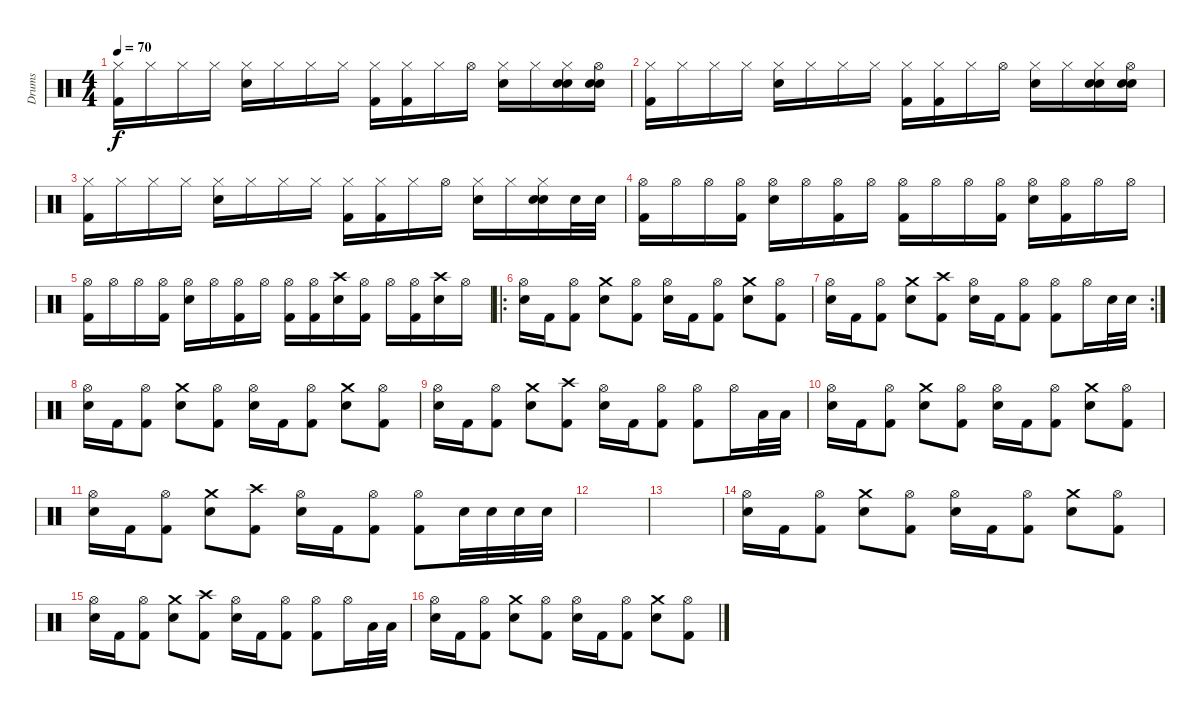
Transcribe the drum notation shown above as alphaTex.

\track ("Drums" "Drums") {instrument percussion}
\staff {score}
\articulation defaults
\ts (4 4)
\tempo 70
\clef neutral
\ks c
("Hi-Hat (closed)" "Kick (hit) 2").16{dy f} "Hi-Hat (closed)".16 "Hi-Hat (closed)".16 "Hi-Hat (closed)".16 ("Hi-Hat (closed)" "Electric Snare (hit)").16 "Hi-Hat (closed)".16 "Hi-Hat (closed)".16 "Hi-Hat (closed)".16 ("Hi-Hat (closed)" "Kick (hit) 2").16 ("Hi-Hat (closed)" "Kick (hit) 2").16 "Hi-Hat (closed)".16 "Hi-Hat (open)".16 ("Hi-Hat (closed)" "Electric Snare (hit)").16 "Hi-Hat (closed)".16 ("Hi-Hat (closed)" "Hand Clap (hit)" "Electric Snare (hit)").16 ("Hi-Hat (open)" "Hand Clap (hit)" "Electric Snare (hit)").16 |
("Hi-Hat (closed)" "Kick (hit) 2").16 "Hi-Hat (closed)".16 "Hi-Hat (closed)".16 "Hi-Hat (closed)".16 ("Hi-Hat (closed)" "Electric Snare (hit)").16 "Hi-Hat (closed)".16 "Hi-Hat (closed)".16 "Hi-Hat (closed)".16 ("Hi-Hat (closed)" "Kick (hit) 2").16 ("Hi-Hat (closed)" "Kick (hit) 2").16 "Hi-Hat (closed)".16 "Hi-Hat (open)".16 ("Hi-Hat (closed)" "Electric Snare (hit)").16 "Hi-Hat (closed)".16 ("Hi-Hat (closed)" "Hand Clap (hit)" "Electric Snare (hit)").16 ("Hi-Hat (open)" "Hand Clap (hit)" "Electric Snare (hit)").16 |
("Hi-Hat (closed)" "Kick (hit) 2").16 "Hi-Hat (closed)".16 "Hi-Hat (closed)".16 "Hi-Hat (closed)".16 ("Hi-Hat (closed)" "Electric Snare (hit)").16 "Hi-Hat (closed)".16 "Hi-Hat (closed)".16 "Hi-Hat (closed)".16 ("Hi-Hat (closed)" "Kick (hit) 2").16 ("Hi-Hat (closed)" "Kick (hit) 2").16 "Hi-Hat (closed)".16 "Hi-Hat (open)".16 ("Hi-Hat (closed)" "Electric Snare (hit)").16 "Hi-Hat (closed)".16 ("Hi-Hat (closed)" "Hand Clap (hit)" "Electric Snare (hit)").16 "Electric Snare (hit)".32 "Electric Snare (hit)".32 |
("Hi-Hat (open)" "Kick (hit) 2").16 "Hi-Hat (open)".16 "Hi-Hat (open)".16 ("Hi-Hat (open)" "Kick (hit) 2").16 ("Hi-Hat (open)" "Electric Snare (hit)").16 "Hi-Hat (open)".16 ("Hi-Hat (open)" "Kick (hit) 2").16 "Hi-Hat (open)".16 ("Hi-Hat (open)" "Kick (hit) 2").16 "Hi-Hat (open)".16 "Hi-Hat (open)".16 ("Hi-Hat (open)" "Kick (hit) 2").16 ("Hi-Hat (open)" "Electric Snare (hit)").16 ("Hi-Hat (open)" "Kick (hit) 2").16 "Hi-Hat (open)".16 "Hi-Hat (open)".16 |
("Hi-Hat (open)" "Kick (hit) 2").16 "Hi-Hat (open)".16 "Hi-Hat (open)".16 ("Hi-Hat (open)" "Kick (hit) 2").16 ("Hi-Hat (open)" "Electric Snare (hit)").16 "Hi-Hat (open)".16 ("Hi-Hat (open)" "Kick (hit) 2").16 "Hi-Hat (open)".16 ("Hi-Hat (open)" "Kick (hit) 2").16 ("Hi-Hat (open)" "Kick (hit) 2").16 ("Crash high (hit)" "Electric Snare (hit)").16 ("Hi-Hat (open)" "Kick (hit) 2").16 "Hi-Hat (open)".16 ("Hi-Hat (open)" "Kick (hit) 2").16 ("Crash high (hit)" "Electric Snare (hit)").16 "Hi-Hat (open)".16 |
\ro
("Hi-Hat (open)" "Electric Snare (hit)").16 "Kick (hit) 2".16 ("Hi-Hat (open)" "Kick (hit) 2").8 ("Crash medium (hit)" "Electric Snare (hit)").8 ("Hi-Hat (open)" "Kick (hit) 2").8 ("Hi-Hat (open)" "Electric Snare (hit)").16 "Kick (hit) 2".16 ("Hi-Hat (open)" "Kick (hit) 2").8 ("Crash medium (hit)" "Electric Snare (hit)").8 ("Hi-Hat (open)" "Kick (hit) 2").8 |
\rc 2
("Hi-Hat (open)" "Electric Snare (hit)").16 "Kick (hit) 2".16 ("Hi-Hat (open)" "Kick (hit) 2").8 ("Crash medium (hit)" "Electric Snare (hit)").8 ("Crash high (hit)" "Kick (hit) 2").8 ("Hi-Hat (open)" "Electric Snare (hit)").16 "Kick (hit) 2".16 ("Hi-Hat (open)" "Kick (hit) 2").8 ("Hi-Hat (open)" "Kick (hit) 2").8 "Hi-Hat (open)".16 "Electric Snare (hit)".32 "Electric Snare (hit)".32 |
("Hi-Hat (open)" "Electric Snare (hit)").16 "Kick (hit) 2".16 ("Hi-Hat (open)" "Kick (hit) 2").8 ("Crash medium (hit)" "Electric Snare (hit)").8 ("Hi-Hat (open)" "Kick (hit) 2").8 ("Hi-Hat (open)" "Electric Snare (hit)").16 "Kick (hit) 2".16 ("Hi-Hat (open)" "Kick (hit) 2").8 ("Crash medium (hit)" "Electric Snare (hit)").8 ("Hi-Hat (open)" "Kick (hit) 2").8 |
("Hi-Hat (open)" "Electric Snare (hit)").16 "Kick (hit) 2".16 ("Hi-Hat (open)" "Kick (hit) 2").8 ("Crash medium (hit)" "Electric Snare (hit)").8 ("Crash high (hit)" "Kick (hit) 2").8 ("Hi-Hat (open)" "Electric Snare (hit)").16 "Kick (hit) 2".16 ("Hi-Hat (open)" "Kick (hit) 2").8 ("Hi-Hat (open)" "Kick (hit) 2").8 "Hi-Hat (open)".16 "Low Floor Tom (hit)".32 "Low Floor Tom (hit)".32 |
("Hi-Hat (open)" "Electric Snare (hit)").16 "Kick (hit) 2".16 ("Hi-Hat (open)" "Kick (hit) 2").8 ("Crash medium (hit)" "Electric Snare (hit)").8 ("Hi-Hat (open)" "Kick (hit) 2").8 ("Hi-Hat (open)" "Electric Snare (hit)").16 "Kick (hit) 2".16 ("Hi-Hat (open)" "Kick (hit) 2").8 ("Crash medium (hit)" "Electric Snare (hit)").8 ("Hi-Hat (open)" "Kick (hit) 2").8 |
("Hi-Hat (open)" "Electric Snare (hit)").16 "Kick (hit) 2".16 ("Hi-Hat (open)" "Kick (hit) 2").8 ("Crash medium (hit)" "Electric Snare (hit)").8 ("Crash high (hit)" "Kick (hit) 2").8 ("Hi-Hat (open)" "Electric Snare (hit)").16 "Kick (hit) 2".16 ("Hi-Hat (open)" "Kick (hit) 2").8 ("Hi-Hat (open)" "Kick (hit) 2").8 "Electric Snare (hit)".32 "Electric Snare (hit)".32 "Electric Snare (hit)".32 "Electric Snare (hit)".32 |
|
|
("Hi-Hat (open)" "Electric Snare (hit)").16 "Kick (hit) 2".16 ("Hi-Hat (open)" "Kick (hit) 2").8 ("Crash medium (hit)" "Electric Snare (hit)").8 ("Hi-Hat (open)" "Kick (hit) 2").8 ("Hi-Hat (open)" "Electric Snare (hit)").16 "Kick (hit) 2".16 ("Hi-Hat (open)" "Kick (hit) 2").8 ("Crash medium (hit)" "Electric Snare (hit)").8 ("Hi-Hat (open)" "Kick (hit) 2").8 |
("Hi-Hat (open)" "Electric Snare (hit)").16 "Kick (hit) 2".16 ("Hi-Hat (open)" "Kick (hit) 2").8 ("Crash medium (hit)" "Electric Snare (hit)").8 ("Crash high (hit)" "Kick (hit) 2").8 ("Hi-Hat (open)" "Electric Snare (hit)").16 "Kick (hit) 2".16 ("Hi-Hat (open)" "Kick (hit) 2").8 ("Hi-Hat (open)" "Kick (hit) 2").8 "Hi-Hat (open)".16 "Low Floor Tom (hit)".32 "Low Floor Tom (hit)".32 |
("Hi-Hat (open)" "Electric Snare (hit)").16 "Kick (hit) 2".16 ("Hi-Hat (open)" "Kick (hit) 2").8 ("Crash medium (hit)" "Electric Snare (hit)").8 ("Hi-Hat (open)" "Kick (hit) 2").8 ("Hi-Hat (open)" "Electric Snare (hit)").16 "Kick (hit) 2".16 ("Hi-Hat (open)" "Kick (hit) 2").8 ("Crash medium (hit)" "Electric Snare (hit)").8 ("Hi-Hat (open)" "Kick (hit) 2").8
